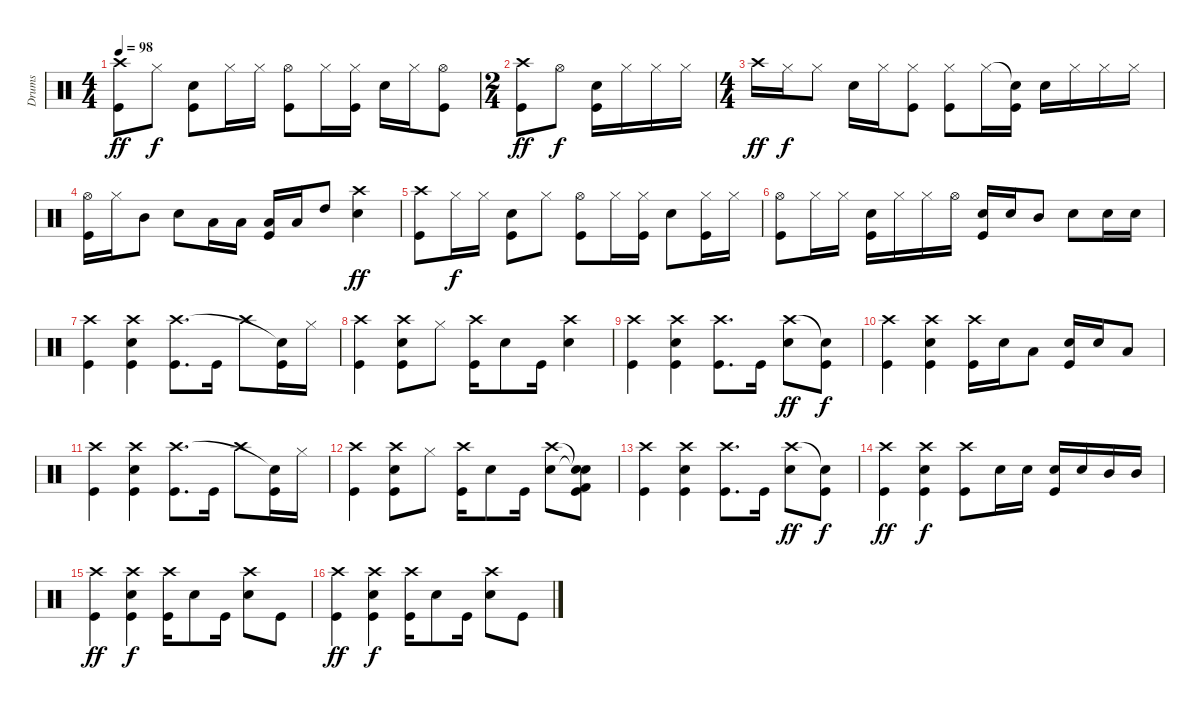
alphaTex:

\track ("Drums" "Drums") {instrument percussion}
\staff {score}
\articulation defaults
\ts (4 4)
\tempo 98
\clef neutral
\ks c
("Crash high (hit)" "Kick (hit)").8{dy ff} "Hi-Hat (closed)".8{dy f} ("Kick (hit)" "Electric Snare (hit)").8 "Hi-Hat (closed)".16 "Hi-Hat (closed)".16 ("Hi-Hat (open)" "Kick (hit)").8 "Hi-Hat (closed)".16 ("Hi-Hat (closed)" "Kick (hit)").16 "Electric Snare (hit)".16 "Hi-Hat (closed)".16 ("Hi-Hat (open)" "Kick (hit)").8 |
\ts (2 4)
("Crash high (hit)" "Kick (hit)").8{dy ff} "Hi-Hat (open)".8{dy f} ("Electric Snare (hit)" "Kick (hit)").16 "Hi-Hat (closed)".16 "Hi-Hat (closed)".16 "Hi-Hat (closed)".16 |
\ts (4 4)
"Crash high (hit)".16{dy ff} "Hi-Hat (closed)".16{dy f} "Hi-Hat (closed)".8 "Electric Snare (hit)".16 "Hi-Hat (closed)".16 ("Hi-Hat (closed)" "Kick (hit)").8 ("Hi-Hat (closed)" "Kick (hit)").8 "Hi-Hat (closed)".16 ("Snare (hit)"{t} "Kick (hit)").16 "Electric Snare (hit)".16 "Hi-Hat (closed)".16 "Hi-Hat (closed)".16 "Hi-Hat (closed)".16 |
("Hi-Hat (open)" "Kick (hit)").16 "Hi-Hat (closed)".16 "Mid Tom (hit)".8 "Electric Snare (hit)".8 "Low Tom (hit)".16 "Low Tom (hit)".16 ("Low Tom (hit)" "Kick (hit)").16 "Low Tom (hit)".16 "High Tom (hit)".8 ("Crash high (hit)" "Electric Snare (hit)").4{dy ff} |
("Crash high (hit)" "Kick (hit)").8 "Hi-Hat (closed)".16{dy f} "Hi-Hat (closed)".16 ("Electric Snare (hit)" "Kick (hit)").8 "Hi-Hat (closed)".8 ("Hi-Hat (open)" "Kick (hit)").8 "Hi-Hat (closed)".16 ("Hi-Hat (closed)" "Kick (hit)").16 "Electric Snare (hit)".8 ("Hi-Hat (closed)" "Kick (hit)").16 "Hi-Hat (closed)".16 |
("Hi-Hat (open)" "Kick (hit)").8 "Hi-Hat (closed)".16 "Hi-Hat (closed)".16 ("Electric Snare (hit)" "Kick (hit)").16 "Hi-Hat (closed)".16 "Hi-Hat (closed)".16 "Hi-Hat (open)".16 ("Electric Snare (hit)" "Kick (hit)").16 "Electric Snare (hit)".16 "Mid Tom (hit)".8 "Electric Snare (hit)".8 "Electric Snare (hit)".16 "Electric Snare (hit)".16 |
("Kick (hit)" "Crash high (hit)").4 ("Kick (hit)" "Electric Snare (hit)" "Crash high (hit)").4 ("Kick (hit)" "Crash high (hit)").8{d} "Kick (hit)".16 "Crash high (hit)".8 ("Kick (hit)" "Snare (hit)"{t}).16 "Hi-Hat (closed)".16 |
("Kick (hit)" "Crash high (hit)").4 ("Kick (hit)" "Electric Snare (hit)" "Crash high (hit)").8 "Hi-Hat (closed)".8 ("Kick (hit)" "Crash high (hit)").16 "Electric Snare (hit)".8 "Kick (hit)".16 ("Electric Snare (hit)" "Crash high (hit)").4 |
("Kick (hit)" "Crash high (hit)").4 ("Kick (hit)" "Electric Snare (hit)" "Crash high (hit)").4 ("Kick (hit)" "Crash high (hit)").8{d} "Kick (hit)".16 ("Electric Snare (hit)" "Crash high (hit)").8{dy ff} ("Kick (hit)" "Snare (hit)"{t}).8{dy f} |
("Crash high (hit)" "Kick (hit)").4 ("Crash high (hit)" "Electric Snare (hit)" "Kick (hit)").4 ("Crash high (hit)" "Kick (hit)").16 "Electric Snare (hit)".16 "Low Tom (hit)".8 ("Electric Snare (hit)" "Kick (hit)").16 "Electric Snare (hit)".16 "Low Tom (hit)".8 |
("Kick (hit)" "Crash high (hit)").4 ("Kick (hit)" "Electric Snare (hit)" "Crash high (hit)").4 ("Kick (hit)" "Crash high (hit)").8{d} "Kick (hit)".16 "Crash high (hit)".8 ("Kick (hit)" "Snare (hit)"{t}).16 "Hi-Hat (closed)".16 |
("Kick (hit)" "Crash high (hit)").4 ("Kick (hit)" "Electric Snare (hit)" "Crash high (hit)").8 "Hi-Hat (closed)".8 ("Kick (hit)" "Crash high (hit)").16 "Electric Snare (hit)".8 "Kick (hit)".16 ("Electric Snare (hit)" "Crash high (hit)").8 ("Snare (hit)"{t} "Snare (hit)"{t} "Kick (hit) 2" "Kick (hit)").8 |
("Kick (hit)" "Crash high (hit)").4 ("Kick (hit)" "Electric Snare (hit)" "Crash high (hit)").4 ("Kick (hit)" "Crash high (hit)").8{d} "Kick (hit)".16 ("Electric Snare (hit)" "Crash high (hit)").8{dy ff} ("Kick (hit)" "Snare (hit)"{t}).8{dy f} |
("Crash high (hit)" "Kick (hit)").4{dy ff} ("Crash high (hit)" "Electric Snare (hit)" "Kick (hit)").4{dy f} ("Crash high (hit)" "Kick (hit)").8 "Electric Snare (hit)".16 "Electric Snare (hit)".16 ("Electric Snare (hit)" "Kick (hit)").16 "Electric Snare (hit)".16 "Mid Tom (hit)".16 "Mid Tom (hit)".16 |
("Crash high (hit)" "Kick (hit)").4{dy ff} ("Crash high (hit)" "Electric Snare (hit)" "Kick (hit)").4{dy f} ("Crash high (hit)" "Kick (hit)").16 "Electric Snare (hit)".8 "Kick (hit)".16 ("Crash high (hit)" "Electric Snare (hit)").8 "Kick (hit)".8 |
("Crash high (hit)" "Kick (hit)").4{dy ff} ("Crash high (hit)" "Electric Snare (hit)" "Kick (hit)").4{dy f} ("Crash high (hit)" "Kick (hit)").16 "Electric Snare (hit)".8 "Kick (hit)".16 ("Crash high (hit)" "Electric Snare (hit)").8 "Kick (hit)".8
